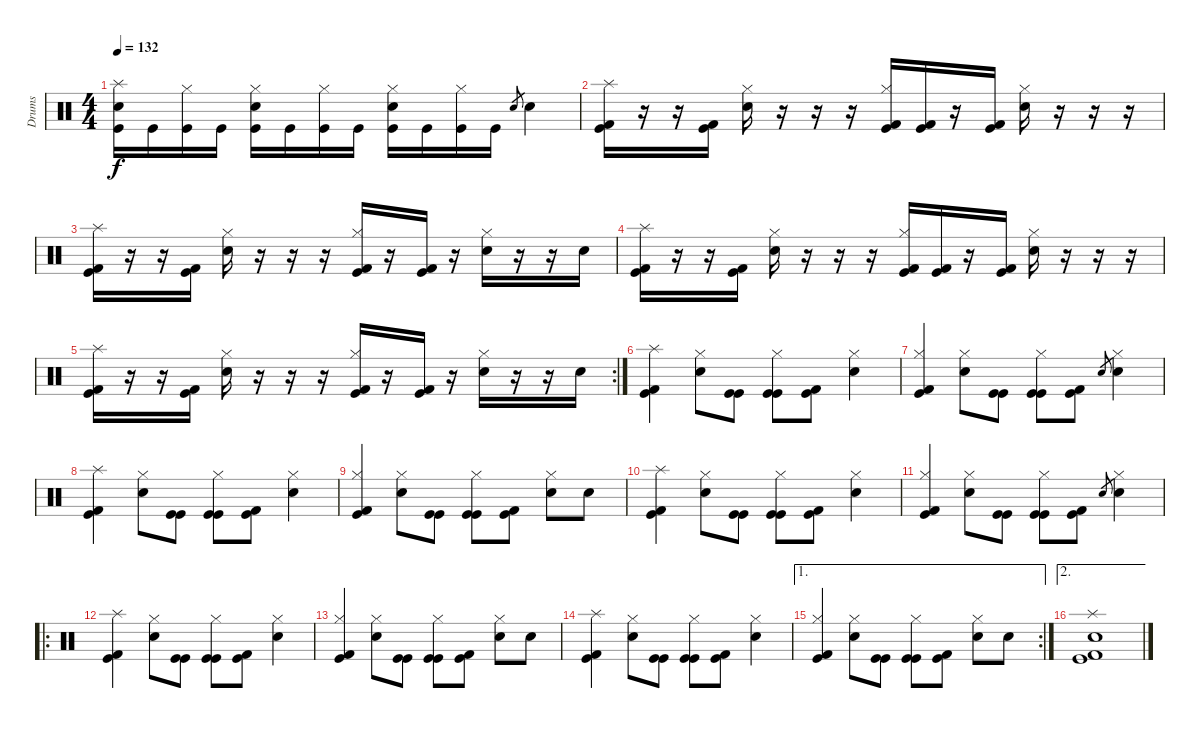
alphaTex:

\track ("Drums" "Drums") {instrument percussion}
\staff {score}
\articulation defaults
\ts (4 4)
\tempo 132
\clef neutral
\ks c
("Splash (hit)" "Electric Snare (hit)" "Kick (hit)").16{dy f} "Kick (hit)".16 ("Hi-Hat (closed)" "Kick (hit)").16 "Kick (hit)".16 ("Hi-Hat (closed)" "Electric Snare (hit)" "Kick (hit)").16 "Kick (hit)".16 ("Hi-Hat (closed)" "Kick (hit)").16 "Kick (hit)".16 ("Hi-Hat (closed)" "Electric Snare (hit)" "Kick (hit)").16 "Kick (hit)".16 ("Hi-Hat (closed)" "Kick (hit)").16 "Kick (hit)".16 "Electric Snare (hit)".8{gr} "Electric Snare (hit)".4 |
("Splash (hit)" "Kick (hit) 2" "Kick (hit)").16 r.16 r.16 ("Kick (hit) 2" "Kick (hit)").16 ("Hi-Hat (closed)" "Electric Snare (hit)").16 r.16 r.16 r.16 ("Hi-Hat (closed)" "Kick (hit)" "Kick (hit) 2").16 ("Kick (hit)" "Kick (hit) 2").16 r.16 ("Kick (hit)" "Kick (hit) 2").16 ("Hi-Hat (closed)" "Electric Snare (hit)").16 r.16 r.16 r.16 |
("Splash (hit)" "Kick (hit) 2" "Kick (hit)").16 r.16 r.16 ("Kick (hit) 2" "Kick (hit)").16 ("Hi-Hat (closed)" "Electric Snare (hit)").16 r.16 r.16 r.16 ("Hi-Hat (closed)" "Kick (hit)" "Kick (hit) 2").16 r.16 ("Kick (hit) 2" "Kick (hit)").16 r.16 ("Hi-Hat (closed)" "Electric Snare (hit)").16 r.16 r.16 "Electric Snare (hit)".16 |
("Splash (hit)" "Kick (hit) 2" "Kick (hit)").16 r.16 r.16 ("Kick (hit) 2" "Kick (hit)").16 ("Hi-Hat (closed)" "Electric Snare (hit)").16 r.16 r.16 r.16 ("Hi-Hat (closed)" "Kick (hit)" "Kick (hit) 2").16 ("Kick (hit)" "Kick (hit) 2").16 r.16 ("Kick (hit)" "Kick (hit) 2").16 ("Hi-Hat (closed)" "Electric Snare (hit)").16 r.16 r.16 r.16 |
\rc 2
("Splash (hit)" "Kick (hit) 2" "Kick (hit)").16 r.16 r.16 ("Kick (hit) 2" "Kick (hit)").16 ("Hi-Hat (closed)" "Electric Snare (hit)").16 r.16 r.16 r.16 ("Hi-Hat (closed)" "Kick (hit)" "Kick (hit) 2").16 r.16 ("Kick (hit) 2" "Kick (hit)").16 r.16 ("Hi-Hat (closed)" "Electric Snare (hit)").16 r.16 r.16 "Electric Snare (hit)".16 |
("Splash (hit)" "Kick (hit) 2" "Kick (hit)").4 ("Hi-Hat (closed)" "Electric Snare (hit)").8 ("Kick (hit)" "Kick (hit)").8 ("Hi-Hat (closed)" "Kick (hit)" "Kick (hit)").8 ("Kick (hit)" "Kick (hit) 2").8 ("Hi-Hat (closed)" "Electric Snare (hit)").4 |
("Hi-Hat (closed)" "Kick (hit) 2" "Kick (hit)").4 ("Hi-Hat (closed)" "Electric Snare (hit)").8 ("Kick (hit)" "Kick (hit)").8 ("Hi-Hat (closed)" "Kick (hit)" "Kick (hit)").8 ("Kick (hit)" "Kick (hit) 2").8 "Electric Snare (hit)".8{gr} ("Hi-Hat (closed)" "Electric Snare (hit)").4 |
("Splash (hit)" "Kick (hit) 2" "Kick (hit)").4 ("Hi-Hat (closed)" "Electric Snare (hit)").8 ("Kick (hit)" "Kick (hit)").8 ("Hi-Hat (closed)" "Kick (hit)" "Kick (hit)").8 ("Kick (hit)" "Kick (hit) 2").8 ("Hi-Hat (closed)" "Electric Snare (hit)").4 |
("Hi-Hat (closed)" "Kick (hit) 2" "Kick (hit)").4 ("Hi-Hat (closed)" "Electric Snare (hit)").8 ("Kick (hit)" "Kick (hit)").8 ("Hi-Hat (closed)" "Kick (hit)" "Kick (hit)").8 ("Kick (hit)" "Kick (hit) 2").8 ("Hi-Hat (closed)" "Electric Snare (hit)").8 "Electric Snare (hit)".8 |
("Splash (hit)" "Kick (hit) 2" "Kick (hit)").4 ("Hi-Hat (closed)" "Electric Snare (hit)").8 ("Kick (hit)" "Kick (hit)").8 ("Hi-Hat (closed)" "Kick (hit)" "Kick (hit)").8 ("Kick (hit)" "Kick (hit) 2").8 ("Hi-Hat (closed)" "Electric Snare (hit)").4 |
("Hi-Hat (closed)" "Kick (hit) 2" "Kick (hit)").4 ("Hi-Hat (closed)" "Electric Snare (hit)").8 ("Kick (hit)" "Kick (hit)").8 ("Hi-Hat (closed)" "Kick (hit)" "Kick (hit)").8 ("Kick (hit)" "Kick (hit) 2").8 "Electric Snare (hit)".8{gr} ("Hi-Hat (closed)" "Electric Snare (hit)").4 |
\ro
("Splash (hit)" "Kick (hit) 2" "Kick (hit)").4 ("Hi-Hat (closed)" "Electric Snare (hit)").8 ("Kick (hit)" "Kick (hit)").8 ("Hi-Hat (closed)" "Kick (hit)" "Kick (hit)").8 ("Kick (hit)" "Kick (hit) 2").8 ("Hi-Hat (closed)" "Electric Snare (hit)").4 |
("Hi-Hat (closed)" "Kick (hit) 2" "Kick (hit)").4 ("Hi-Hat (closed)" "Electric Snare (hit)").8 ("Kick (hit)" "Kick (hit)").8 ("Hi-Hat (closed)" "Kick (hit)" "Kick (hit)").8 ("Kick (hit)" "Kick (hit) 2").8 ("Hi-Hat (closed)" "Electric Snare (hit)").8 "Electric Snare (hit)".8 |
("Splash (hit)" "Kick (hit) 2" "Kick (hit)").4 ("Hi-Hat (closed)" "Electric Snare (hit)").8 ("Kick (hit)" "Kick (hit)").8 ("Hi-Hat (closed)" "Kick (hit)" "Kick (hit)").8 ("Kick (hit)" "Kick (hit) 2").8 ("Hi-Hat (closed)" "Electric Snare (hit)").4 |
\ae 1
\rc 2
("Hi-Hat (closed)" "Kick (hit) 2" "Kick (hit)").4 ("Hi-Hat (closed)" "Electric Snare (hit)").8 ("Kick (hit)" "Kick (hit)").8 ("Hi-Hat (closed)" "Kick (hit)" "Kick (hit)").8 ("Kick (hit)" "Kick (hit) 2").8 ("Hi-Hat (closed)" "Electric Snare (hit)").8 "Electric Snare (hit)".8 |
\ae 2
("Kick (hit) 2" "Kick (hit)" "Electric Snare (hit)" "Splash (hit)").1
